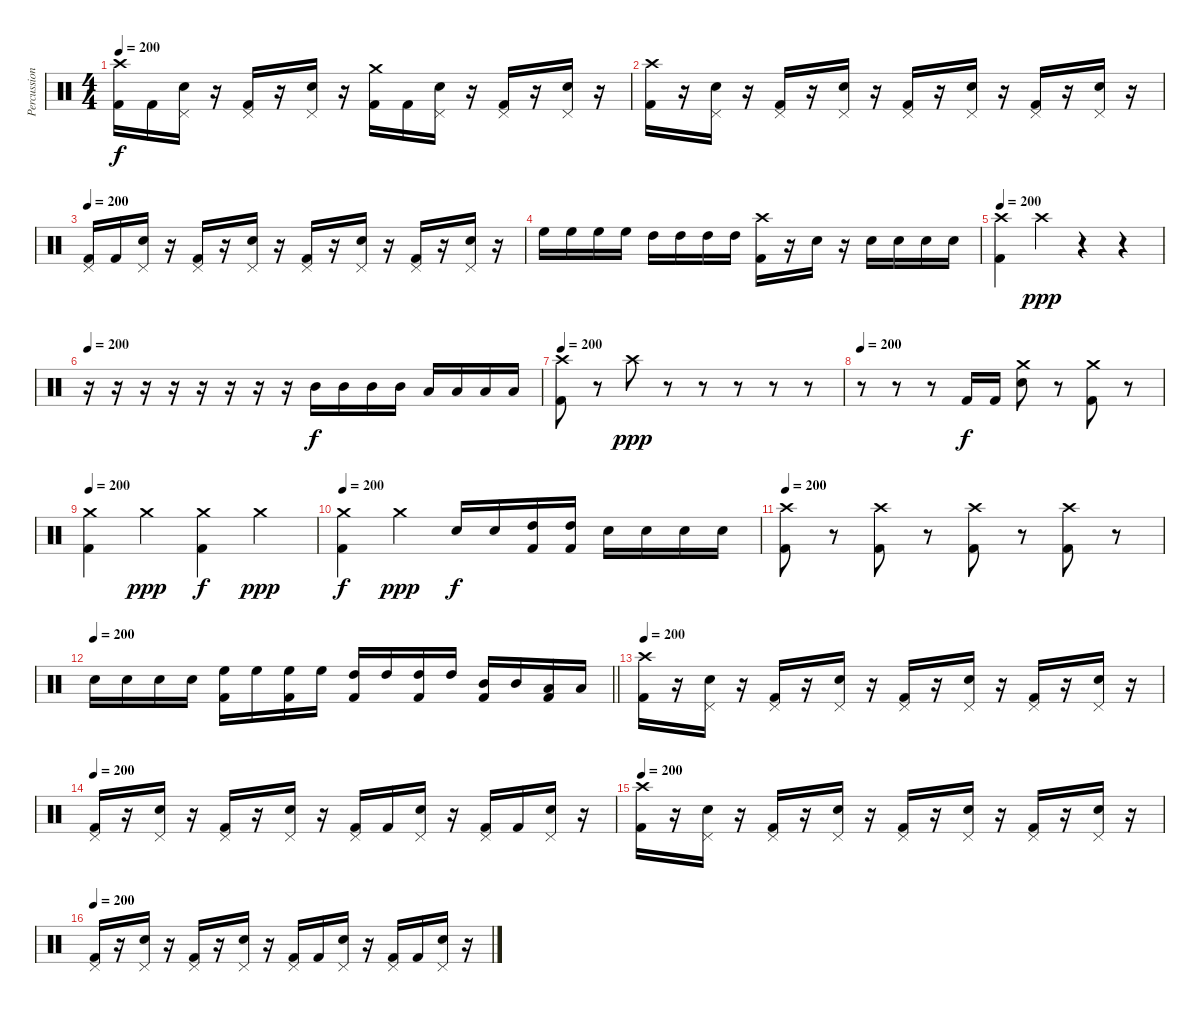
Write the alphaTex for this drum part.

\track ("Percussion" "Percussion") {instrument percussion}
\staff {score}
\articulation defaults
\ts (4 4)
\tempo 200
\clef neutral
\ks c
("Crash high (hit)" "Kick (hit) 2").16{dy f} "Kick (hit) 2".16 ("Pedal Hi-Hat (hit)" "Snare (hit) 2").16 r.16 ("Pedal Hi-Hat (hit)" "Kick (hit) 2").16 r.16 ("Pedal Hi-Hat (hit)" "Snare (hit) 2").16 r.16 ("Crash medium (hit)" "Kick (hit) 2").16 "Kick (hit) 2".16 ("Pedal Hi-Hat (hit)" "Snare (hit) 2").16 r.16 ("Pedal Hi-Hat (hit)" "Kick (hit) 2").16 r.16 ("Pedal Hi-Hat (hit)" "Snare (hit) 2").16 r.16 |
("Crash high (hit)" "Kick (hit) 2").16 r.16 ("Pedal Hi-Hat (hit)" "Snare (hit) 2").16 r.16 ("Pedal Hi-Hat (hit)" "Kick (hit) 2").16 r.16 ("Pedal Hi-Hat (hit)" "Snare (hit) 2").16 r.16 ("Pedal Hi-Hat (hit)" "Kick (hit) 2").16 r.16 ("Pedal Hi-Hat (hit)" "Snare (hit) 2").16 r.16 ("Pedal Hi-Hat (hit)" "Kick (hit) 2").16 r.16 ("Pedal Hi-Hat (hit)" "Snare (hit) 2").16 r.16 |
\tempo 200
("Pedal Hi-Hat (hit)" "Kick (hit) 2").16 "Kick (hit) 2".16 ("Pedal Hi-Hat (hit)" "Snare (hit) 2").16 r.16 ("Pedal Hi-Hat (hit)" "Kick (hit) 2").16 r.16 ("Pedal Hi-Hat (hit)" "Snare (hit) 2").16 r.16 ("Pedal Hi-Hat (hit)" "Kick (hit) 2").16 r.16 ("Pedal Hi-Hat (hit)" "Snare (hit) 2").16 r.16 ("Pedal Hi-Hat (hit)" "Kick (hit) 2").16 r.16 ("Pedal Hi-Hat (hit)" "Snare (hit) 2").16 r.16 |
"High Floor Tom (hit)".16 "High Floor Tom (hit)".16 "High Floor Tom (hit)".16 "High Floor Tom (hit)".16 "High Tom (hit)".16 "High Tom (hit)".16 "High Tom (hit)".16 "High Tom (hit)".16 ("Crash high (hit)" "Kick (hit) 2").16 r.16 "Snare (hit) 2".16 r.16 "Snare (hit) 2".16 "Snare (hit) 2".16 "Snare (hit) 2".16 "Snare (hit) 2".16 |
\tempo 200
("Crash high (hit)" "Kick (hit) 2").4 "Crash high (hit)".4{dy ppp} r.4 r.4 |
\tempo 200
r.16 r.16 r.16 r.16 r.16 r.16 r.16 r.16 "Mid Tom (hit)".16{dy f} "Mid Tom (hit)".16 "Mid Tom (hit)".16 "Mid Tom (hit)".16 "Low Tom (hit)".16 "Low Tom (hit)".16 "Low Tom (hit)".16 "Low Tom (hit)".16 |
\tempo 200
("Crash high (hit)" "Kick (hit) 2").8 r.8 "Crash high (hit)".8{dy ppp} r.8 r.8 r.8 r.8 r.8 |
\tempo 200
r.8 r.8 r.8 "Kick (hit) 2".16{dy f} "Kick (hit) 2".16 ("Crash medium (hit)" "Snare (hit) 2").8 r.8 ("Crash medium (hit)" "Kick (hit) 2").8 r.8 |
\tempo 200
("Crash medium (hit)" "Kick (hit) 2").4 "Crash medium (hit)".4{dy ppp} ("Crash medium (hit)" "Kick (hit) 2").4{dy f} "Crash medium (hit)".4{dy ppp} |
\tempo 200
("Crash medium (hit)" "Kick (hit) 2").4{dy f} "Crash medium (hit)".4{dy ppp} "Snare (hit) 2".16{dy f} "Snare (hit) 2".16 ("High Tom (hit)" "Kick (hit) 2").16 ("High Tom (hit)" "Kick (hit) 2").16 "Snare (hit) 2".16 "Snare (hit) 2".16 "Snare (hit) 2".16 "Snare (hit) 2".16 |
\tempo 200
("Crash high (hit)" "Kick (hit) 2").8 r.8 ("Crash high (hit)" "Kick (hit) 2").8 r.8 ("Crash high (hit)" "Kick (hit) 2").8 r.8 ("Crash high (hit)" "Kick (hit) 2").8 r.8 |
\tempo 200
\barLineRight lightlight "Snare (hit) 2".16 "Snare (hit) 2".16 "Snare (hit) 2".16 "Snare (hit) 2".16
("High Floor Tom (hit)" "Kick (hit) 2").16 "High Floor Tom (hit)".16 ("High Floor Tom (hit)" "Kick (hit) 2").16 "High Floor Tom (hit)".16 ("High Tom (hit)" "Kick (hit) 2").16 "High Tom (hit)".16 ("High Tom (hit)" "Kick (hit) 2").16 "High Tom (hit)".16 ("Mid Tom (hit)" "Kick (hit) 2").16 "Mid Tom (hit)".16 ("Low Tom (hit)" "Kick (hit) 2").16 "Low Tom (hit)".16 |
\section ("" "")
\tempo 200
("Crash high (hit)" "Kick (hit) 2").16 r.16 ("Pedal Hi-Hat (hit)" "Snare (hit) 2").16 r.16 ("Pedal Hi-Hat (hit)" "Kick (hit) 2").16 r.16 ("Pedal Hi-Hat (hit)" "Snare (hit) 2").16 r.16 ("Pedal Hi-Hat (hit)" "Kick (hit) 2").16 r.16 ("Pedal Hi-Hat (hit)" "Snare (hit) 2").16 r.16 ("Pedal Hi-Hat (hit)" "Kick (hit) 2").16 r.16 ("Pedal Hi-Hat (hit)" "Snare (hit) 2").16 r.16 |
\tempo 200
("Pedal Hi-Hat (hit)" "Kick (hit) 2").16 r.16 ("Pedal Hi-Hat (hit)" "Snare (hit) 2").16 r.16 ("Pedal Hi-Hat (hit)" "Kick (hit) 2").16 r.16 ("Pedal Hi-Hat (hit)" "Snare (hit) 2").16 r.16 ("Pedal Hi-Hat (hit)" "Kick (hit) 2").16 "Kick (hit) 2".16 ("Pedal Hi-Hat (hit)" "Snare (hit) 2").16 r.16 ("Pedal Hi-Hat (hit)" "Kick (hit) 2").16 "Kick (hit) 2".16 ("Pedal Hi-Hat (hit)" "Snare (hit) 2").16 r.16 |
\tempo 200
("Crash high (hit)" "Kick (hit) 2").16 r.16 ("Pedal Hi-Hat (hit)" "Snare (hit) 2").16 r.16 ("Pedal Hi-Hat (hit)" "Kick (hit) 2").16 r.16 ("Pedal Hi-Hat (hit)" "Snare (hit) 2").16 r.16 ("Pedal Hi-Hat (hit)" "Kick (hit) 2").16 r.16 ("Pedal Hi-Hat (hit)" "Snare (hit) 2").16 r.16 ("Pedal Hi-Hat (hit)" "Kick (hit) 2").16 r.16 ("Pedal Hi-Hat (hit)" "Snare (hit) 2").16 r.16 |
\tempo 200
("Pedal Hi-Hat (hit)" "Kick (hit) 2").16 r.16 ("Pedal Hi-Hat (hit)" "Snare (hit) 2").16 r.16 ("Pedal Hi-Hat (hit)" "Kick (hit) 2").16 r.16 ("Pedal Hi-Hat (hit)" "Snare (hit) 2").16 r.16 ("Pedal Hi-Hat (hit)" "Kick (hit) 2").16 "Kick (hit) 2".16 ("Pedal Hi-Hat (hit)" "Snare (hit) 2").16 r.16 ("Pedal Hi-Hat (hit)" "Kick (hit) 2").16 "Kick (hit) 2".16 ("Pedal Hi-Hat (hit)" "Snare (hit) 2").16 r.16
